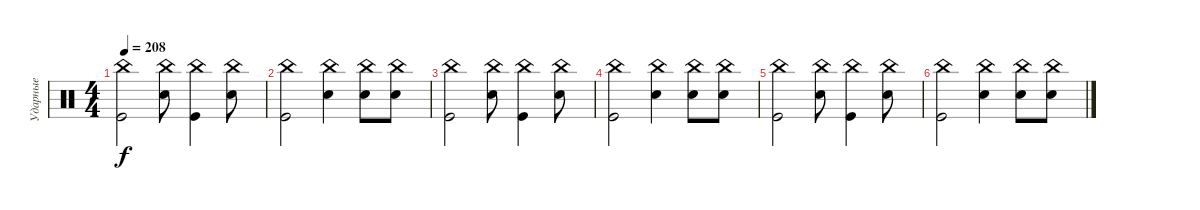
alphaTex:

\track ("Ударные" "Ударные") {instrument percussion}
\staff {score}
\articulation defaults
\ts (4 4)
\tempo 208
\clef neutral
\ks c
("Kick (hit)" "China (hit)").2{dy f} ("Snare (hit) 2" "China (hit)").8 ("Kick (hit)" "China (hit)").4 ("Snare (hit) 2" "China (hit)").8 |
("Kick (hit)" "China (hit)").2 ("Snare (hit) 2" "China (hit)").4 ("Snare (hit) 2" "China (hit)").8 ("Snare (hit) 2" "China (hit)").8 |
("Kick (hit)" "China (hit)").2 ("Snare (hit) 2" "China (hit)").8 ("Kick (hit)" "China (hit)").4 ("Snare (hit) 2" "China (hit)").8 |
("Kick (hit)" "China (hit)").2 ("Snare (hit) 2" "China (hit)").4 ("Snare (hit) 2" "China (hit)").8 ("Snare (hit) 2" "China (hit)").8 |
("Kick (hit)" "China (hit)").2 ("Snare (hit) 2" "China (hit)").8 ("Kick (hit)" "China (hit)").4 ("Snare (hit) 2" "China (hit)").8 |
("Kick (hit)" "China (hit)").2 ("Snare (hit) 2" "China (hit)").4 ("Snare (hit) 2" "China (hit)").8 ("Snare (hit) 2" "China (hit)").8
